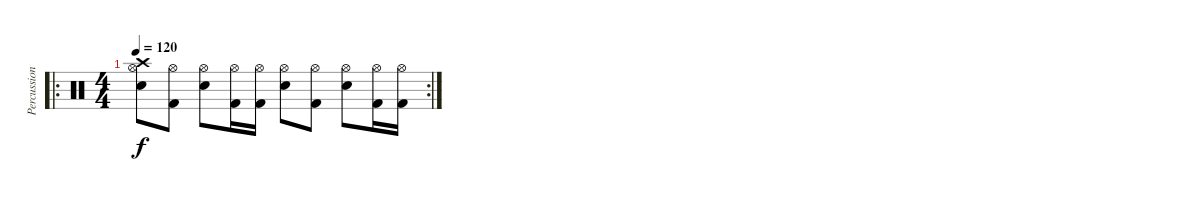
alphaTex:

\track ("Percussion" "Percussion") {instrument percussion}
\staff {score}
\articulation defaults
\ro
\rc 2
\ts (4 4)
\tempo 120
\clef neutral
\ks c
("Crash high (hit)" "Hi-Hat (open)" "Electric Snare (hit)").8{dy f} ("Hi-Hat (open)" "Kick (hit) 2").8 ("Hi-Hat (open)" "Electric Snare (hit)").8 ("Hi-Hat (open)" "Kick (hit) 2").16 ("Hi-Hat (open)" "Kick (hit) 2").16 ("Hi-Hat (open)" "Electric Snare (hit)").8 ("Hi-Hat (open)" "Kick (hit) 2").8 ("Hi-Hat (open)" "Electric Snare (hit)").8 ("Hi-Hat (open)" "Kick (hit) 2").16 ("Hi-Hat (open)" "Kick (hit) 2").16
